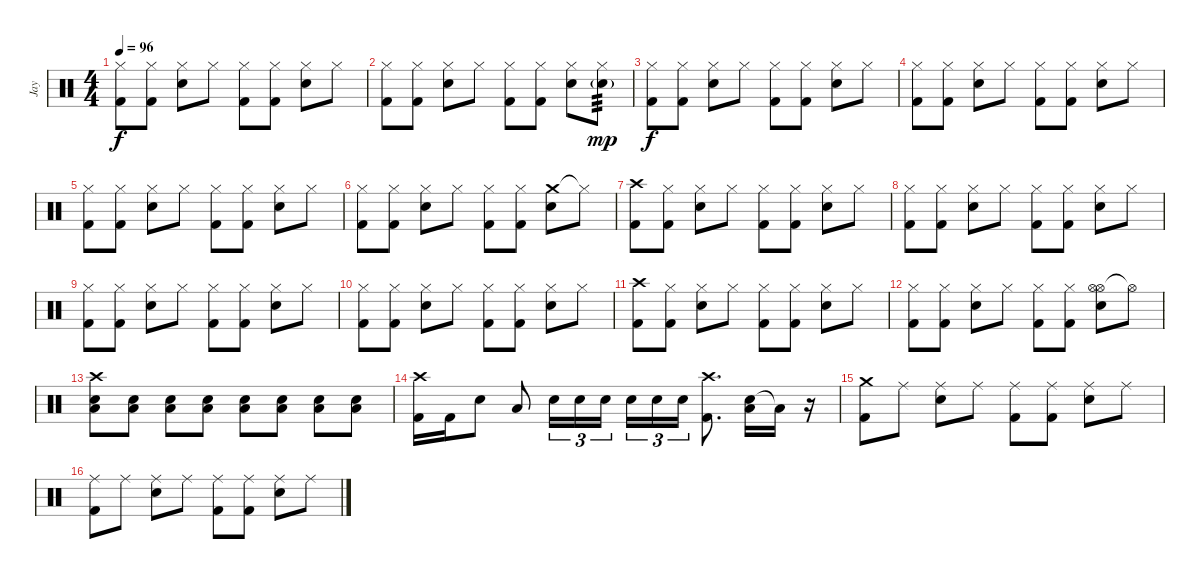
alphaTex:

\track ("Jay" "Jay") {instrument percussion}
\staff {score}
\articulation defaults
\ts (4 4)
\tempo 96
\clef neutral
\ks c
("Hi-Hat (closed)" "Kick (hit) 2").8{dy f} ("Hi-Hat (closed)" "Kick (hit) 2").8 ("Hi-Hat (closed)" "Electric Snare (hit)").8 "Hi-Hat (closed)".8 ("Hi-Hat (closed)" "Kick (hit) 2").8 ("Hi-Hat (closed)" "Kick (hit) 2").8 ("Hi-Hat (closed)" "Electric Snare (hit)").8 "Hi-Hat (closed)".8 |
("Hi-Hat (closed)" "Kick (hit) 2").8 ("Hi-Hat (closed)" "Kick (hit) 2").8 ("Hi-Hat (closed)" "Electric Snare (hit)").8 "Hi-Hat (closed)".8 ("Hi-Hat (closed)" "Kick (hit) 2").8 ("Hi-Hat (closed)" "Kick (hit) 2").8 ("Hi-Hat (closed)" "Electric Snare (hit)").8 ("Hi-Hat (closed)" "Electric Snare (hit)"{g}).8{tp 3 dy mp} |
("Hi-Hat (closed)" "Kick (hit) 2").8{dy f} ("Hi-Hat (closed)" "Kick (hit) 2").8 ("Hi-Hat (closed)" "Electric Snare (hit)").8 "Hi-Hat (closed)".8 ("Hi-Hat (closed)" "Kick (hit) 2").8 ("Hi-Hat (closed)" "Kick (hit) 2").8 ("Hi-Hat (closed)" "Electric Snare (hit)").8 "Hi-Hat (closed)".8 |
("Hi-Hat (closed)" "Kick (hit) 2").8 ("Hi-Hat (closed)" "Kick (hit) 2").8 ("Hi-Hat (closed)" "Electric Snare (hit)").8 "Hi-Hat (closed)".8 ("Hi-Hat (closed)" "Kick (hit) 2").8 ("Hi-Hat (closed)" "Kick (hit) 2").8 ("Hi-Hat (closed)" "Electric Snare (hit)").8 "Hi-Hat (closed)".8 |
("Hi-Hat (closed)" "Kick (hit) 2").8 ("Hi-Hat (closed)" "Kick (hit) 2").8 ("Hi-Hat (closed)" "Electric Snare (hit)").8 "Hi-Hat (closed)".8 ("Hi-Hat (closed)" "Kick (hit) 2").8 ("Hi-Hat (closed)" "Kick (hit) 2").8 ("Hi-Hat (closed)" "Electric Snare (hit)").8 "Hi-Hat (closed)".8 |
("Hi-Hat (closed)" "Kick (hit) 2").8 ("Hi-Hat (closed)" "Kick (hit) 2").8 ("Hi-Hat (closed)" "Electric Snare (hit)").8 "Hi-Hat (closed)".8 ("Hi-Hat (closed)" "Kick (hit) 2").8 ("Hi-Hat (closed)" "Kick (hit) 2").8 ("Crash medium (hit)" "Electric Snare (hit)").8 "Hi-Hat (closed)"{t}.8 |
("Crash high (hit)" "Kick (hit) 2").8 ("Hi-Hat (closed)" "Kick (hit) 2").8 ("Hi-Hat (closed)" "Electric Snare (hit)").8 "Hi-Hat (closed)".8 ("Hi-Hat (closed)" "Kick (hit) 2").8 ("Hi-Hat (closed)" "Kick (hit) 2").8 ("Hi-Hat (closed)" "Electric Snare (hit)").8 "Hi-Hat (closed)".8 |
("Hi-Hat (closed)" "Kick (hit) 2").8 ("Hi-Hat (closed)" "Kick (hit) 2").8 ("Hi-Hat (closed)" "Electric Snare (hit)").8 "Hi-Hat (closed)".8 ("Hi-Hat (closed)" "Kick (hit) 2").8 ("Hi-Hat (closed)" "Kick (hit) 2").8 ("Hi-Hat (closed)" "Electric Snare (hit)").8 "Hi-Hat (closed)".8 |
("Hi-Hat (closed)" "Kick (hit) 2").8 ("Hi-Hat (closed)" "Kick (hit) 2").8 ("Hi-Hat (closed)" "Electric Snare (hit)").8 "Hi-Hat (closed)".8 ("Hi-Hat (closed)" "Kick (hit) 2").8 ("Hi-Hat (closed)" "Kick (hit) 2").8 ("Hi-Hat (closed)" "Electric Snare (hit)").8 "Hi-Hat (closed)".8 |
("Hi-Hat (closed)" "Kick (hit) 2").8 ("Hi-Hat (closed)" "Kick (hit) 2").8 ("Hi-Hat (closed)" "Electric Snare (hit)").8 "Hi-Hat (closed)".8 ("Hi-Hat (closed)" "Kick (hit) 2").8 ("Hi-Hat (closed)" "Kick (hit) 2").8 ("Hi-Hat (closed)" "Electric Snare (hit)").8 "Hi-Hat (closed)".8 |
("Crash high (hit)" "Kick (hit) 2").8 ("Hi-Hat (closed)" "Kick (hit) 2").8 ("Hi-Hat (closed)" "Electric Snare (hit)").8 "Hi-Hat (closed)".8 ("Hi-Hat (closed)" "Kick (hit) 2").8 ("Hi-Hat (closed)" "Kick (hit) 2").8 ("Hi-Hat (closed)" "Electric Snare (hit)").8 "Hi-Hat (closed)".8 |
("Hi-Hat (closed)" "Kick (hit) 2").8 ("Hi-Hat (closed)" "Kick (hit) 2").8 ("Hi-Hat (closed)" "Electric Snare (hit)").8 "Hi-Hat (closed)".8 ("Hi-Hat (closed)" "Kick (hit) 2").8 ("Hi-Hat (closed)" "Kick (hit) 2").8 ("Hi-Hat (open)" "Hi-Hat (open)" "Electric Snare (hit)").8 "Hi-Hat (open)"{t}.8 |
("Crash high (hit)" "Low Tom (hit)" "Electric Snare (hit)").8 ("Low Tom (hit)" "Electric Snare (hit)").8 ("Low Tom (hit)" "Electric Snare (hit)").8 ("Low Tom (hit)" "Electric Snare (hit)").8 ("Low Tom (hit)" "Electric Snare (hit)").8 ("Low Tom (hit)" "Electric Snare (hit)").8 ("Low Tom (hit)" "Electric Snare (hit)").8 ("Low Tom (hit)" "Electric Snare (hit)").8 |
("Kick (hit) 2" "Crash high (hit)").16 "Kick (hit) 2".16 "Electric Snare (hit)".8 "Low Tom (hit)".8 "Electric Snare (hit)".16{tu (3 2)} "Electric Snare (hit)".16{tu (3 2)} "Electric Snare (hit)".16{tu (3 2)} "Electric Snare (hit)".16{tu (3 2)} "Electric Snare (hit)".16{tu (3 2)} "Electric Snare (hit)".16{tu (3 2)} ("Crash high (hit)" "Kick (hit) 2").8{d} ("Electric Snare (hit)" "Low Tom (hit)").16 "Low Tom (hit)"{t}.16 r.16 |
("Crash medium (hit)" "Kick (hit) 2").8 "Ride (middle)".8 ("Ride (middle)" "Electric Snare (hit)").8 "Ride (middle)".8 ("Ride (middle)" "Kick (hit) 2").8 ("Ride (middle)" "Kick (hit) 2").8 ("Ride (middle)" "Electric Snare (hit)").8 "Ride (middle)".8 |
("Ride (middle)" "Kick (hit) 2").8 "Ride (middle)".8 ("Ride (middle)" "Electric Snare (hit)").8 "Ride (middle)".8 ("Ride (middle)" "Kick (hit) 2").8 ("Ride (middle)" "Kick (hit) 2").8 ("Ride (middle)" "Electric Snare (hit)").8 "Ride (middle)".8
